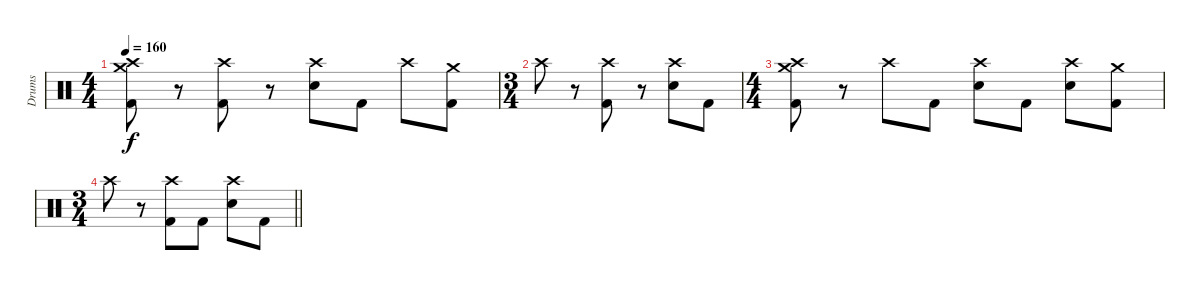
\track ("Drums" "Drums") {instrument percussion}
\staff {score}
\articulation defaults
\ts (4 4)
\tempo 160
\clef neutral
\ks c
("Crash high (hit)" "Crash medium (hit)" "Kick (hit) 2").8{dy f} r.8 ("Crash high (hit)" "Kick (hit) 2").8 r.8 ("Crash high (hit)" "Electric Snare (hit)").8 "Kick (hit) 2".8 "Crash high (hit)".8 ("Crash medium (hit)" "Kick (hit) 2").8 |
\ts (3 4)
"Crash high (hit)".8 r.8 ("Crash high (hit)" "Kick (hit) 2").8 r.8 ("Crash high (hit)" "Electric Snare (hit)").8 "Kick (hit) 2".8 |
\ts (4 4)
("Crash high (hit)" "Crash medium (hit)" "Kick (hit) 2").8 r.8 "Crash high (hit)".8 "Kick (hit) 2".8 ("Crash high (hit)" "Electric Snare (hit)").8 "Kick (hit) 2".8 ("Crash high (hit)" "Electric Snare (hit)").8 ("Crash medium (hit)" "Kick (hit) 2").8 |
\ts (3 4)
\barLineRight lightlight "Crash high (hit)".8
r.8 ("Crash high (hit)" "Kick (hit) 2").8 "Kick (hit) 2".8 ("Crash high (hit)" "Electric Snare (hit)").8 "Kick (hit) 2".8
